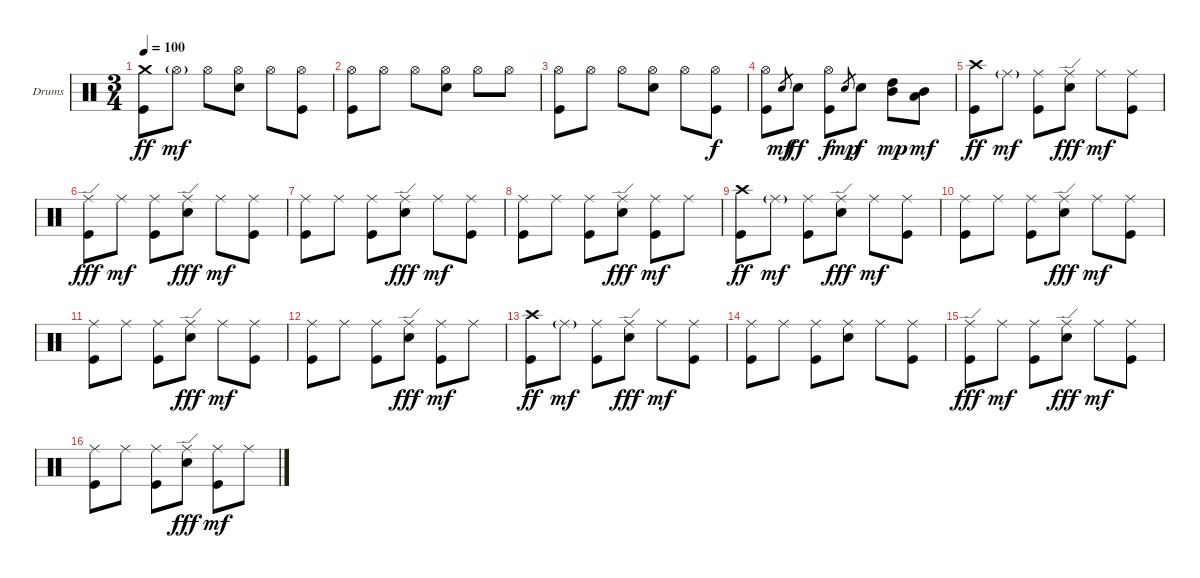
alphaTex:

\defaultSystemsLayout 4
\bracketExtendMode groupsimilarinstruments
\firstSystemTrackNameOrientation horizontal
\otherSystemsTrackNameOrientation horizontal
\track ("Drumkit" "Drums") {instrument percussion}
\staff {score}
\articulation defaults
\ts (3 4)
\tempo 100
\clef neutral
\ks c
("Crash medium (hit)" "Kick (hit)").8{dy ff} "Hi-Hat (open)"{g}.8{dy mf} "Hi-Hat (open)".8 ("Hi-Hat (open)" "Snare (hit) 2").8 "Hi-Hat (open)".8 ("Hi-Hat (open)" "Kick (hit)").8 |
("Hi-Hat (open)" "Kick (hit)").8 "Hi-Hat (open)".8 "Hi-Hat (open)".8 ("Hi-Hat (open)" "Snare (hit) 2").8 "Hi-Hat (open)".8 "Hi-Hat (open)".8 |
("Hi-Hat (open)" "Kick (hit)").8 "Hi-Hat (open)".8 "Hi-Hat (open)".8 ("Hi-Hat (open)" "Snare (hit) 2").8 "Hi-Hat (open)".8 ("Hi-Hat (open)" "Kick (hit)").8{dy f} |
("Hi-Hat (open)" "Kick (hit)").8 "Snare (hit) 2".8{gr dy mf} "Snare (hit) 2".8{dy ff} ("Hi-Hat (open)" "Kick (hit)").8{dy f} "Snare (hit) 2".8{gr dy mp} "Snare (hit) 2".8{dy f} ("High Tom (hit)" "Mid Tom (hit)").8{dy mp} ("Mid Tom (hit)" "Low Tom (hit)").8{dy mf} |
("Crash high (hit)" "Kick (hit)").8{dy ff} "Ride (middle)"{g}.8{dy mf} ("Ride (middle)" "Kick (hit)").8 ("Ride (edge)" "Snare (hit) 2").8{dy fff} "Ride (middle)".8{dy mf} ("Ride (middle)" "Kick (hit)").8 |
("Ride (edge)" "Kick (hit)").8{dy fff} "Ride (middle)".8{dy mf} ("Ride (middle)" "Kick (hit)").8 ("Ride (edge)" "Snare (hit) 2").8{dy fff} "Ride (middle)".8{dy mf} ("Ride (middle)" "Kick (hit)").8 |
("Ride (middle)" "Kick (hit)").8 "Ride (middle)".8 ("Ride (middle)" "Kick (hit)").8 ("Ride (edge)" "Snare (hit) 2").8{dy fff} "Ride (middle)".8{dy mf} ("Ride (middle)" "Kick (hit)").8 |
("Ride (middle)" "Kick (hit)").8 "Ride (middle)".8 ("Ride (middle)" "Kick (hit)").8 ("Ride (edge)" "Snare (hit) 2").8{dy fff} ("Ride (middle)" "Kick (hit)").8{dy mf} "Ride (middle)".8 |
("Crash high (hit)" "Kick (hit)").8{dy ff} "Ride (middle)"{g}.8{dy mf} ("Ride (middle)" "Kick (hit)").8 ("Ride (edge)" "Snare (hit) 2").8{dy fff} "Ride (middle)".8{dy mf} ("Ride (middle)" "Kick (hit)").8 |
("Ride (middle)" "Kick (hit)").8 "Ride (middle)".8 ("Ride (middle)" "Kick (hit)").8 ("Ride (edge)" "Snare (hit) 2").8{dy fff} "Ride (middle)".8{dy mf} ("Ride (middle)" "Kick (hit)").8 |
("Ride (middle)" "Kick (hit)").8 "Ride (middle)".8 ("Ride (middle)" "Kick (hit)").8 ("Ride (edge)" "Snare (hit) 2").8{dy fff} "Ride (middle)".8{dy mf} ("Ride (middle)" "Kick (hit)").8 |
("Ride (middle)" "Kick (hit)").8 "Ride (middle)".8 ("Ride (middle)" "Kick (hit)").8 ("Ride (edge)" "Snare (hit) 2").8{dy fff} ("Ride (middle)" "Kick (hit)").8{dy mf} "Ride (middle)".8 |
("Crash high (hit)" "Kick (hit)").8{dy ff} "Ride (middle)"{g}.8{dy mf} ("Ride (middle)" "Kick (hit)").8 ("Ride (edge)" "Snare (hit) 2").8{dy fff} "Ride (middle)".8{dy mf} ("Ride (middle)" "Kick (hit)").8 |
("Ride (middle)" "Kick (hit)").8 "Ride (middle)".8 ("Ride (middle)" "Kick (hit)").8 ("Ride (middle)" "Snare (hit) 2").8 "Ride (middle)".8 ("Ride (middle)" "Kick (hit)").8 |
("Ride (edge)" "Kick (hit)").8{dy fff} "Ride (middle)".8{dy mf} ("Ride (middle)" "Kick (hit)").8 ("Ride (edge)" "Snare (hit) 2").8{dy fff} "Ride (middle)".8{dy mf} ("Ride (middle)" "Kick (hit)").8 |
("Ride (middle)" "Kick (hit)").8 "Ride (middle)".8 ("Ride (middle)" "Kick (hit)").8 ("Ride (edge)" "Snare (hit) 2").8{dy fff} ("Ride (middle)" "Kick (hit)").8{dy mf} "Ride (middle)".8
